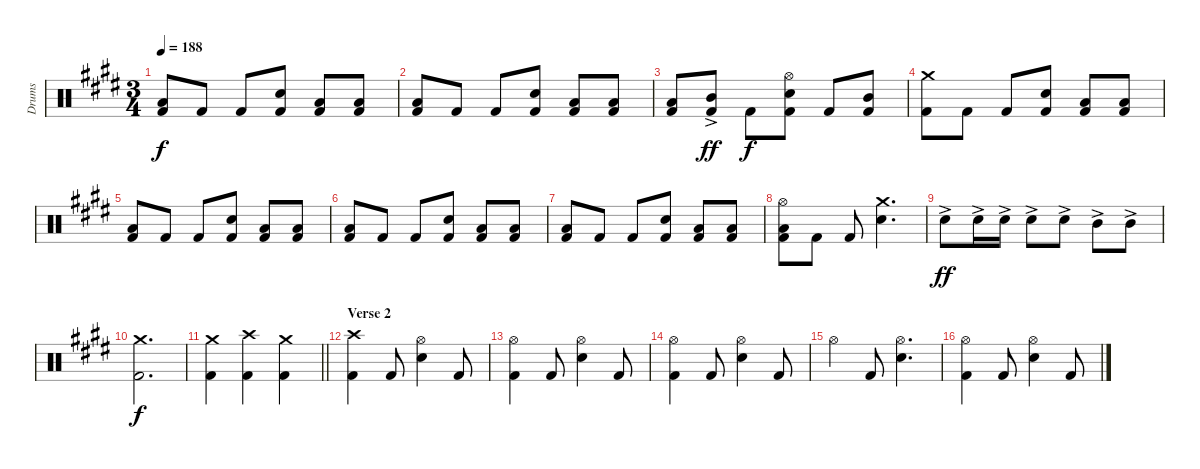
\track ("Drums" "Drums") {instrument percussion}
\staff {score}
\articulation defaults
\ts (3 4)
\tempo 188
\clef neutral
\ks e
("Low Floor Tom (hit)" "Kick (hit) 2").8{dy f} "Kick (hit) 2".8 "Kick (hit) 2".8 ("Electric Snare (hit)" "Kick (hit) 2").8 ("Low Floor Tom (hit)" "Kick (hit) 2").8 ("Low Floor Tom (hit)" "Kick (hit) 2").8 |
("Low Floor Tom (hit)" "Kick (hit) 2").8 "Kick (hit) 2".8 "Kick (hit) 2".8 ("Electric Snare (hit)" "Kick (hit) 2").8 ("Low Floor Tom (hit)" "Kick (hit) 2").8 ("Low Floor Tom (hit)" "Kick (hit) 2").8 |
("Low Floor Tom (hit)" "Kick (hit) 2").8 ("Mid Tom (hit)"{ac} "Kick (hit) 2").8{dy ff} "Kick (hit) 2".8{dy f} ("Hi-Hat (open)" "Electric Snare (hit)" "Kick (hit) 2").8 "Kick (hit) 2".8 ("Mid Tom (hit)" "Kick (hit) 2").8 |
("Crash medium (hit)" "Kick (hit) 2").8 "Kick (hit) 2".8 "Kick (hit) 2".8 ("Electric Snare (hit)" "Kick (hit) 2").8 ("Low Floor Tom (hit)" "Kick (hit) 2").8 ("Low Floor Tom (hit)" "Kick (hit) 2").8 |
("Low Floor Tom (hit)" "Kick (hit) 2").8 "Kick (hit) 2".8 "Kick (hit) 2".8 ("Electric Snare (hit)" "Kick (hit) 2").8 ("Low Floor Tom (hit)" "Kick (hit) 2").8 ("Low Floor Tom (hit)" "Kick (hit) 2").8 |
("Low Floor Tom (hit)" "Kick (hit) 2").8 "Kick (hit) 2".8 "Kick (hit) 2".8 ("Electric Snare (hit)" "Kick (hit) 2").8 ("Low Floor Tom (hit)" "Kick (hit) 2").8 ("Low Floor Tom (hit)" "Kick (hit) 2").8 |
("Low Floor Tom (hit)" "Kick (hit) 2").8 "Kick (hit) 2".8 "Kick (hit) 2".8 ("Electric Snare (hit)" "Kick (hit) 2").8 ("Low Floor Tom (hit)" "Kick (hit) 2").8 ("Low Floor Tom (hit)" "Kick (hit) 2").8 |
("Hi-Hat (open)" "Low Floor Tom (hit)" "Kick (hit) 2").8 "Kick (hit) 2".8 "Kick (hit) 2".8 ("Crash medium (hit)" "Electric Snare (hit)").4{d} |
"Electric Snare (hit)"{ac}.8{dy ff} "Electric Snare (hit)"{ac}.16 "Electric Snare (hit)"{ac}.16 "Electric Snare (hit)"{ac}.8 "Electric Snare (hit)"{ac}.8 "Mid Tom (hit)"{ac}.8 "Mid Tom (hit)"{ac}.8 |
("Crash medium (hit)" "Kick (hit) 2").2{d dy f} |
\barLineRight lightlight
("Crash medium (hit)" "Kick (hit) 2").4 ("Crash high (hit)" "Kick (hit) 2").4 ("Crash medium (hit)" "Kick (hit) 2").4 |
\section ("" "Verse 2")
("Crash high (hit)" "Kick (hit) 2").4 "Kick (hit) 2".8 ("Hi-Hat (open)" "Electric Snare (hit)").4 "Kick (hit) 2".8 |
("Hi-Hat (open)" "Kick (hit) 2").4 "Kick (hit) 2".8 ("Hi-Hat (open)" "Electric Snare (hit)").4 "Kick (hit) 2".8 |
("Hi-Hat (open)" "Kick (hit) 2").4 "Kick (hit) 2".8 ("Hi-Hat (open)" "Electric Snare (hit)").4 "Kick (hit) 2".8 |
"Hi-Hat (open)".4 "Kick (hit) 2".8 ("Hi-Hat (open)" "Electric Snare (hit)").4{d} |
("Hi-Hat (open)" "Kick (hit) 2").4 "Kick (hit) 2".8 ("Hi-Hat (open)" "Electric Snare (hit)").4 "Kick (hit) 2".8
